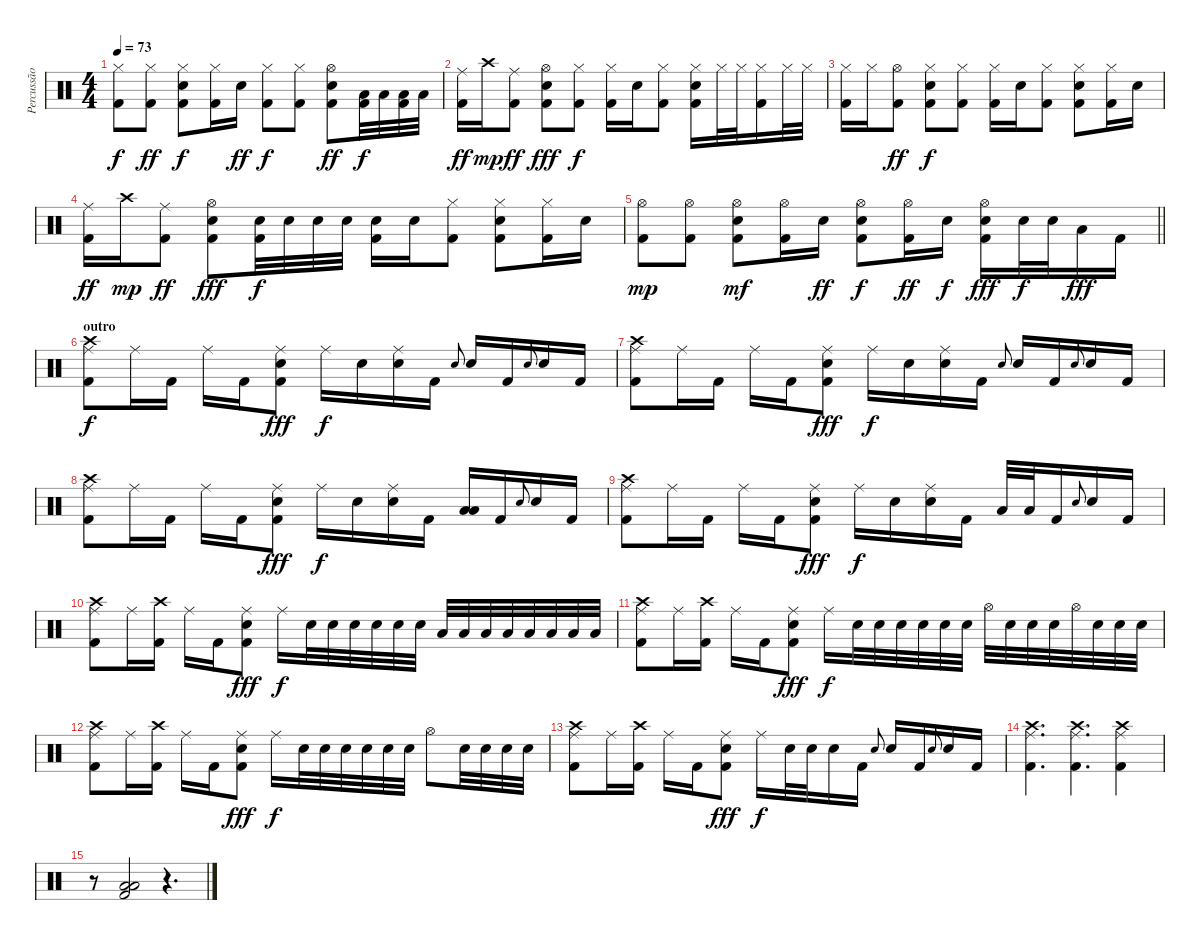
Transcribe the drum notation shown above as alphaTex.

\track ("Percussão" "Percussão") {instrument percussion}
\staff {score}
\articulation defaults
\ts (4 4)
\tempo 73
\clef neutral
\ks c
("Hi-Hat (closed)" "Kick (hit) 2").8{dy f} ("Hi-Hat (closed)" "Kick (hit) 2").8{dy ff} ("Hi-Hat (closed)" "Electric Snare (hit)" "Kick (hit) 2").8{dy f} ("Hi-Hat (closed)" "Kick (hit) 2").16 "Electric Snare (hit)".16{dy ff} ("Hi-Hat (closed)" "Kick (hit) 2").8{dy f} ("Hi-Hat (closed)" "Kick (hit) 2").8 ("Hi-Hat (open)" "Electric Snare (hit)" "Kick (hit) 2").8{dy ff} ("Low Tom (hit)" "Kick (hit) 2").32{dy f} "Low Tom (hit)".32 ("Low Floor Tom (hit)" "Kick (hit) 2").32 "Low Floor Tom (hit)".32 |
("Ride (middle)" "Kick (hit) 2").16{dy ff} "Crash high (hit)".16{dy mp} ("Ride (middle)" "Kick (hit) 2").8{dy ff} ("Hi-Hat (open)" "Electric Snare (hit)" "Kick (hit) 2").8{dy fff} ("Hi-Hat (closed)" "Kick (hit) 2").8{dy f} ("Hi-Hat (closed)" "Kick (hit) 2").16 "Electric Snare (hit)".16 ("Hi-Hat (closed)" "Kick (hit) 2").8 ("Hi-Hat (closed)" "Electric Snare (hit)" "Kick (hit) 2").16 "Hi-Hat (closed)".32 "Hi-Hat (closed)".32 ("Hi-Hat (closed)" "Kick (hit) 2").16 "Hi-Hat (closed)".32 "Hi-Hat (closed)".32 |
("Hi-Hat (closed)" "Kick (hit) 2").16 "Hi-Hat (closed)".16 ("Hi-Hat (open)" "Kick (hit) 2").8{dy ff} ("Hi-Hat (closed)" "Electric Snare (hit)" "Kick (hit) 2").8{dy f} ("Hi-Hat (closed)" "Kick (hit) 2").8 ("Hi-Hat (closed)" "Kick (hit) 2").16 "Electric Snare (hit)".16 ("Hi-Hat (closed)" "Kick (hit) 2").8 ("Hi-Hat (closed)" "Electric Snare (hit)" "Kick (hit) 2").8 ("Hi-Hat (closed)" "Kick (hit) 2").16 "Electric Snare (hit)".16 |
("Ride (middle)" "Kick (hit) 2").16{dy ff} "Crash high (hit)".16{dy mp} ("Ride (middle)" "Kick (hit) 2").8{dy ff} ("Hi-Hat (open)" "Electric Snare (hit)" "Kick (hit) 2").8{dy fff} ("Electric Snare (hit)" "Kick (hit) 2").32{dy f} "Electric Snare (hit)".32 "Electric Snare (hit)".32 "Electric Snare (hit)".32 ("Electric Snare (hit)" "Kick (hit) 2").16 "Electric Snare (hit)".16 ("Hi-Hat (closed)" "Kick (hit) 2").8 ("Hi-Hat (closed)" "Electric Snare (hit)" "Kick (hit) 2").8 ("Hi-Hat (closed)" "Kick (hit) 2").16 "Electric Snare (hit)".16 |
\barLineRight lightlight
("Hi-Hat (open)" "Kick (hit) 2").8{dy mp} ("Hi-Hat (open)" "Kick (hit) 2").8 ("Hi-Hat (open)" "Electric Snare (hit)" "Kick (hit) 2").8{dy mf} ("Hi-Hat (open)" "Kick (hit) 2").16 "Electric Snare (hit)".16{dy ff} ("Hi-Hat (open)" "Electric Snare (hit)" "Kick (hit) 2").8{dy f} ("Hi-Hat (open)" "Kick (hit) 2").16{dy ff} "Electric Snare (hit)".16{dy f} ("Hi-Hat (open)" "Electric Snare (hit)" "Kick (hit) 2").16{dy fff} "Electric Snare (hit)".32{dy f} "Electric Snare (hit)".32 "Low Tom (hit)".16{dy fff} "Kick (hit) 2".16 |
\section ("" "outro")
("Crash high (hit)" "Ride (middle)" "Kick (hit) 2").8{dy f} "Ride (middle)".16 "Kick (hit) 2".16 "Ride (middle)".16 "Kick (hit) 2".16 ("Ride (middle)" "Electric Snare (hit)" "Kick (hit) 2").8{dy fff} "Ride (middle)".16{dy f} "Electric Snare (hit)".16 ("Ride (middle)" "Electric Snare (hit)").16 "Kick (hit) 2".16 "Electric Snare (hit)".8{gr onbeat} "Electric Snare (hit)".16 "Kick (hit) 2".16 "Electric Snare (hit)".8{gr onbeat} "Electric Snare (hit)".16 "Kick (hit) 2".16 |
("Crash high (hit)" "Ride (middle)" "Kick (hit) 2").8 "Ride (middle)".16 "Kick (hit) 2".16 "Ride (middle)".16 "Kick (hit) 2".16 ("Ride (middle)" "Electric Snare (hit)" "Kick (hit) 2").8{dy fff} "Ride (middle)".16{dy f} "Electric Snare (hit)".16 ("Ride (middle)" "Electric Snare (hit)").16 "Kick (hit) 2".16 "Electric Snare (hit)".8{gr onbeat} "Electric Snare (hit)".16 "Kick (hit) 2".16 "Electric Snare (hit)".8{gr onbeat} "Electric Snare (hit)".16 "Kick (hit) 2".16 |
("Crash high (hit)" "Ride (middle)" "Kick (hit) 2").8 "Ride (middle)".16 "Kick (hit) 2".16 "Ride (middle)".16 "Kick (hit) 2".16 ("Ride (middle)" "Electric Snare (hit)" "Kick (hit) 2").8{dy fff} "Ride (middle)".16{dy f} "Electric Snare (hit)".16 ("Ride (middle)" "Electric Snare (hit)").16 "Kick (hit) 2".16 ("Low Tom (hit)" "Low Floor Tom (hit)").16 "Kick (hit) 2".16 "Electric Snare (hit)".8{gr onbeat} "Electric Snare (hit)".16 "Kick (hit) 2".16 |
("Crash high (hit)" "Ride (middle)" "Kick (hit) 2").8 "Ride (middle)".16 "Kick (hit) 2".16 "Ride (middle)".16 "Kick (hit) 2".16 ("Ride (middle)" "Electric Snare (hit)" "Kick (hit) 2").8{dy fff} "Ride (middle)".16{dy f} "Electric Snare (hit)".16 ("Ride (middle)" "Electric Snare (hit)").16 "Kick (hit) 2".16 "Low Tom (hit)".32 "Low Floor Tom (hit)".32 "Kick (hit) 2".16 "Electric Snare (hit)".8{gr onbeat} "Electric Snare (hit)".16 "Kick (hit) 2".16 |
("Crash high (hit)" "Ride (middle)" "Kick (hit) 2").8 "Ride (middle)".16 ("Crash high (hit)" "Kick (hit) 2").16 "Ride (middle)".16 "Kick (hit) 2".16 ("Ride (middle)" "Electric Snare (hit)" "Kick (hit) 2").8{dy fff} "Ride (middle)".16{dy f} "Electric Snare (hit)".32 "Electric Snare (hit)".32 "Electric Snare (hit)".32 "Electric Snare (hit)".32 "Electric Snare (hit)".32 "Electric Snare (hit)".32 "Low Tom (hit)".32 "Low Tom (hit)".32 "Low Tom (hit)".32 "Low Tom (hit)".32 "Low Floor Tom (hit)".32 "Low Floor Tom (hit)".32 "Low Floor Tom (hit)".32 "Low Floor Tom (hit)".32 |
("Crash high (hit)" "Ride (middle)" "Kick (hit) 2").8 "Ride (middle)".16 ("Crash high (hit)" "Kick (hit) 2").16 "Ride (middle)".16 "Kick (hit) 2".16 ("Ride (middle)" "Electric Snare (hit)" "Kick (hit) 2").8{dy fff} "Ride (middle)".16{dy f} "Electric Snare (hit)".32 "Electric Snare (hit)".32 "Electric Snare (hit)".32 "Electric Snare (hit)".32 "Electric Snare (hit)".32 "Electric Snare (hit)".32 "Hi-Hat (open)".32 "Electric Snare (hit)".32 "Electric Snare (hit)".32 "Electric Snare (hit)".32 "Hi-Hat (open)".32 "Electric Snare (hit)".32 "Electric Snare (hit)".32 "Electric Snare (hit)".32 |
("Crash high (hit)" "Ride (middle)" "Kick (hit) 2").8 "Ride (middle)".16 ("Crash high (hit)" "Kick (hit) 2").16 "Ride (middle)".16 "Kick (hit) 2".16 ("Ride (middle)" "Electric Snare (hit)" "Kick (hit) 2").8{dy fff} "Ride (middle)".16{dy f} "Electric Snare (hit)".32 "Electric Snare (hit)".32 "Electric Snare (hit)".32 "Electric Snare (hit)".32 "Electric Snare (hit)".32 "Electric Snare (hit)".32 "Hi-Hat (open)".8 "Electric Snare (hit)".32 "Electric Snare (hit)".32 "Electric Snare (hit)".32 "Electric Snare (hit)".32 |
("Crash high (hit)" "Ride (middle)" "Kick (hit) 2").8 "Ride (middle)".16 ("Crash high (hit)" "Kick (hit) 2").16 "Ride (middle)".16 "Kick (hit) 2".16 ("Ride (middle)" "Electric Snare (hit)" "Kick (hit) 2").8{dy fff} "Ride (middle)".16{dy f} "Electric Snare (hit)".32 "Electric Snare (hit)".32 "Electric Snare (hit)".16 "Kick (hit) 2".16 "Electric Snare (hit)".8{gr onbeat} "Electric Snare (hit)".16 "Kick (hit) 2".16 "Electric Snare (hit)".8{gr onbeat} "Electric Snare (hit)".16 "Kick (hit) 2".16 |
("Crash high (hit)" "Ride (middle)" "Kick (hit) 2").4{d} ("Crash high (hit)" "Ride (middle)" "Kick (hit) 2").4{d} ("Crash high (hit)" "Ride (middle)" "Kick (hit) 2").4 |
r.8 ("Low Tom (hit)" "Low Floor Tom (hit)" "Kick (hit) 2").2 r.4{d}
